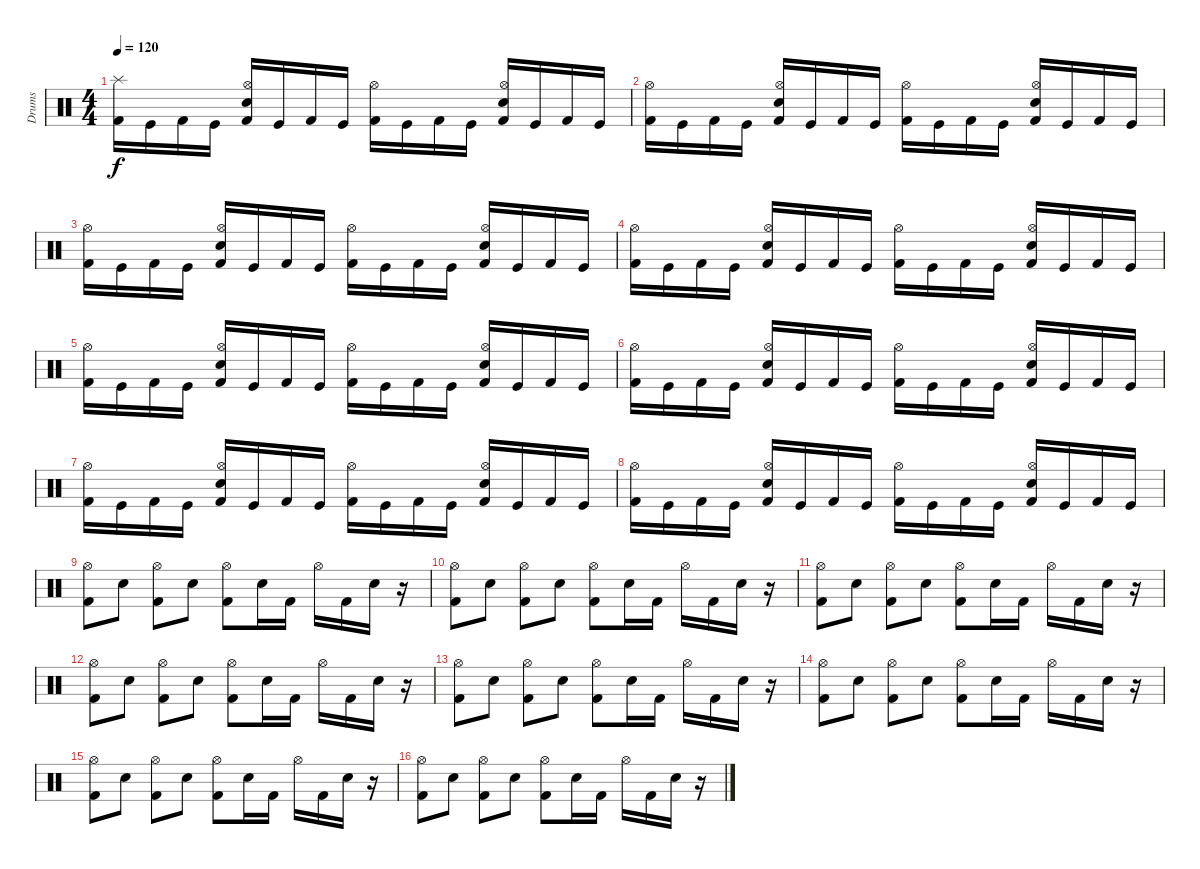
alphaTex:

\track ("Drums" "Drums") {instrument percussion}
\staff {score}
\articulation defaults
\ts (4 4)
\tempo 120
\clef neutral
\ks c
("Splash (hit)" "Kick (hit) 2").16{dy f} "Kick (hit)".16 "Kick (hit) 2".16 "Kick (hit)".16 ("Hi-Hat (open)" "Snare (hit) 2" "Kick (hit) 2").16 "Kick (hit)".16 "Kick (hit) 2".16 "Kick (hit)".16 ("Hi-Hat (open)" "Kick (hit) 2").16 "Kick (hit)".16 "Kick (hit) 2".16 "Kick (hit)".16 ("Hi-Hat (open)" "Snare (hit) 2" "Kick (hit) 2").16 "Kick (hit)".16 "Kick (hit) 2".16 "Kick (hit)".16 |
("Hi-Hat (open)" "Kick (hit) 2").16 "Kick (hit)".16 "Kick (hit) 2".16 "Kick (hit)".16 ("Hi-Hat (open)" "Snare (hit) 2" "Kick (hit) 2").16 "Kick (hit)".16 "Kick (hit) 2".16 "Kick (hit)".16 ("Hi-Hat (open)" "Kick (hit) 2").16 "Kick (hit)".16 "Kick (hit) 2".16 "Kick (hit)".16 ("Hi-Hat (open)" "Snare (hit) 2" "Kick (hit) 2").16 "Kick (hit)".16 "Kick (hit) 2".16 "Kick (hit)".16 |
("Hi-Hat (open)" "Kick (hit) 2").16 "Kick (hit)".16 "Kick (hit) 2".16 "Kick (hit)".16 ("Hi-Hat (open)" "Snare (hit) 2" "Kick (hit) 2").16 "Kick (hit)".16 "Kick (hit) 2".16 "Kick (hit)".16 ("Hi-Hat (open)" "Kick (hit) 2").16 "Kick (hit)".16 "Kick (hit) 2".16 "Kick (hit)".16 ("Hi-Hat (open)" "Snare (hit) 2" "Kick (hit) 2").16 "Kick (hit)".16 "Kick (hit) 2".16 "Kick (hit)".16 |
("Hi-Hat (open)" "Kick (hit) 2").16 "Kick (hit)".16 "Kick (hit) 2".16 "Kick (hit)".16 ("Hi-Hat (open)" "Snare (hit) 2" "Kick (hit) 2").16 "Kick (hit)".16 "Kick (hit) 2".16 "Kick (hit)".16 ("Hi-Hat (open)" "Kick (hit) 2").16 "Kick (hit)".16 "Kick (hit) 2".16 "Kick (hit)".16 ("Hi-Hat (open)" "Snare (hit) 2" "Kick (hit) 2").16 "Kick (hit)".16 "Kick (hit) 2".16 "Kick (hit)".16 |
("Hi-Hat (open)" "Kick (hit) 2").16 "Kick (hit)".16 "Kick (hit) 2".16 "Kick (hit)".16 ("Hi-Hat (open)" "Snare (hit) 2" "Kick (hit) 2").16 "Kick (hit)".16 "Kick (hit) 2".16 "Kick (hit)".16 ("Hi-Hat (open)" "Kick (hit) 2").16 "Kick (hit)".16 "Kick (hit) 2".16 "Kick (hit)".16 ("Hi-Hat (open)" "Snare (hit) 2" "Kick (hit) 2").16 "Kick (hit)".16 "Kick (hit) 2".16 "Kick (hit)".16 |
("Hi-Hat (open)" "Kick (hit) 2").16 "Kick (hit)".16 "Kick (hit) 2".16 "Kick (hit)".16 ("Hi-Hat (open)" "Snare (hit) 2" "Kick (hit) 2").16 "Kick (hit)".16 "Kick (hit) 2".16 "Kick (hit)".16 ("Hi-Hat (open)" "Kick (hit) 2").16 "Kick (hit)".16 "Kick (hit) 2".16 "Kick (hit)".16 ("Hi-Hat (open)" "Snare (hit) 2" "Kick (hit) 2").16 "Kick (hit)".16 "Kick (hit) 2".16 "Kick (hit)".16 |
("Hi-Hat (open)" "Kick (hit) 2").16 "Kick (hit)".16 "Kick (hit) 2".16 "Kick (hit)".16 ("Hi-Hat (open)" "Snare (hit) 2" "Kick (hit) 2").16 "Kick (hit)".16 "Kick (hit) 2".16 "Kick (hit)".16 ("Hi-Hat (open)" "Kick (hit) 2").16 "Kick (hit)".16 "Kick (hit) 2".16 "Kick (hit)".16 ("Hi-Hat (open)" "Snare (hit) 2" "Kick (hit) 2").16 "Kick (hit)".16 "Kick (hit) 2".16 "Kick (hit)".16 |
("Hi-Hat (open)" "Kick (hit) 2").16 "Kick (hit)".16 "Kick (hit) 2".16 "Kick (hit)".16 ("Hi-Hat (open)" "Snare (hit) 2" "Kick (hit) 2").16 "Kick (hit)".16 "Kick (hit) 2".16 "Kick (hit)".16 ("Hi-Hat (open)" "Kick (hit) 2").16 "Kick (hit)".16 "Kick (hit) 2".16 "Kick (hit)".16 ("Hi-Hat (open)" "Snare (hit) 2" "Kick (hit) 2").16 "Kick (hit)".16 "Kick (hit) 2".16 "Kick (hit)".16 |
("Hi-Hat (open)" "Kick (hit) 2").8 "Snare (hit) 2".8 ("Hi-Hat (open)" "Kick (hit) 2").8 "Snare (hit) 2".8 ("Hi-Hat (open)" "Kick (hit) 2").8 "Snare (hit) 2".16 "Kick (hit) 2".16 "Hi-Hat (open)".16 "Kick (hit) 2".16 "Snare (hit) 2".16 r.16 |
("Hi-Hat (open)" "Kick (hit) 2").8 "Snare (hit) 2".8 ("Hi-Hat (open)" "Kick (hit) 2").8 "Snare (hit) 2".8 ("Hi-Hat (open)" "Kick (hit) 2").8 "Snare (hit) 2".16 "Kick (hit) 2".16 "Hi-Hat (open)".16 "Kick (hit) 2".16 "Snare (hit) 2".16 r.16 |
("Hi-Hat (open)" "Kick (hit) 2").8 "Snare (hit) 2".8 ("Hi-Hat (open)" "Kick (hit) 2").8 "Snare (hit) 2".8 ("Hi-Hat (open)" "Kick (hit) 2").8 "Snare (hit) 2".16 "Kick (hit) 2".16 "Hi-Hat (open)".16 "Kick (hit) 2".16 "Snare (hit) 2".16 r.16 |
("Hi-Hat (open)" "Kick (hit) 2").8 "Snare (hit) 2".8 ("Hi-Hat (open)" "Kick (hit) 2").8 "Snare (hit) 2".8 ("Hi-Hat (open)" "Kick (hit) 2").8 "Snare (hit) 2".16 "Kick (hit) 2".16 "Hi-Hat (open)".16 "Kick (hit) 2".16 "Snare (hit) 2".16 r.16 |
("Hi-Hat (open)" "Kick (hit) 2").8 "Snare (hit) 2".8 ("Hi-Hat (open)" "Kick (hit) 2").8 "Snare (hit) 2".8 ("Hi-Hat (open)" "Kick (hit) 2").8 "Snare (hit) 2".16 "Kick (hit) 2".16 "Hi-Hat (open)".16 "Kick (hit) 2".16 "Snare (hit) 2".16 r.16 |
("Hi-Hat (open)" "Kick (hit) 2").8 "Snare (hit) 2".8 ("Hi-Hat (open)" "Kick (hit) 2").8 "Snare (hit) 2".8 ("Hi-Hat (open)" "Kick (hit) 2").8 "Snare (hit) 2".16 "Kick (hit) 2".16 "Hi-Hat (open)".16 "Kick (hit) 2".16 "Snare (hit) 2".16 r.16 |
("Hi-Hat (open)" "Kick (hit) 2").8 "Snare (hit) 2".8 ("Hi-Hat (open)" "Kick (hit) 2").8 "Snare (hit) 2".8 ("Hi-Hat (open)" "Kick (hit) 2").8 "Snare (hit) 2".16 "Kick (hit) 2".16 "Hi-Hat (open)".16 "Kick (hit) 2".16 "Snare (hit) 2".16 r.16 |
("Hi-Hat (open)" "Kick (hit) 2").8 "Snare (hit) 2".8 ("Hi-Hat (open)" "Kick (hit) 2").8 "Snare (hit) 2".8 ("Hi-Hat (open)" "Kick (hit) 2").8 "Snare (hit) 2".16 "Kick (hit) 2".16 "Hi-Hat (open)".16 "Kick (hit) 2".16 "Snare (hit) 2".16 r.16
